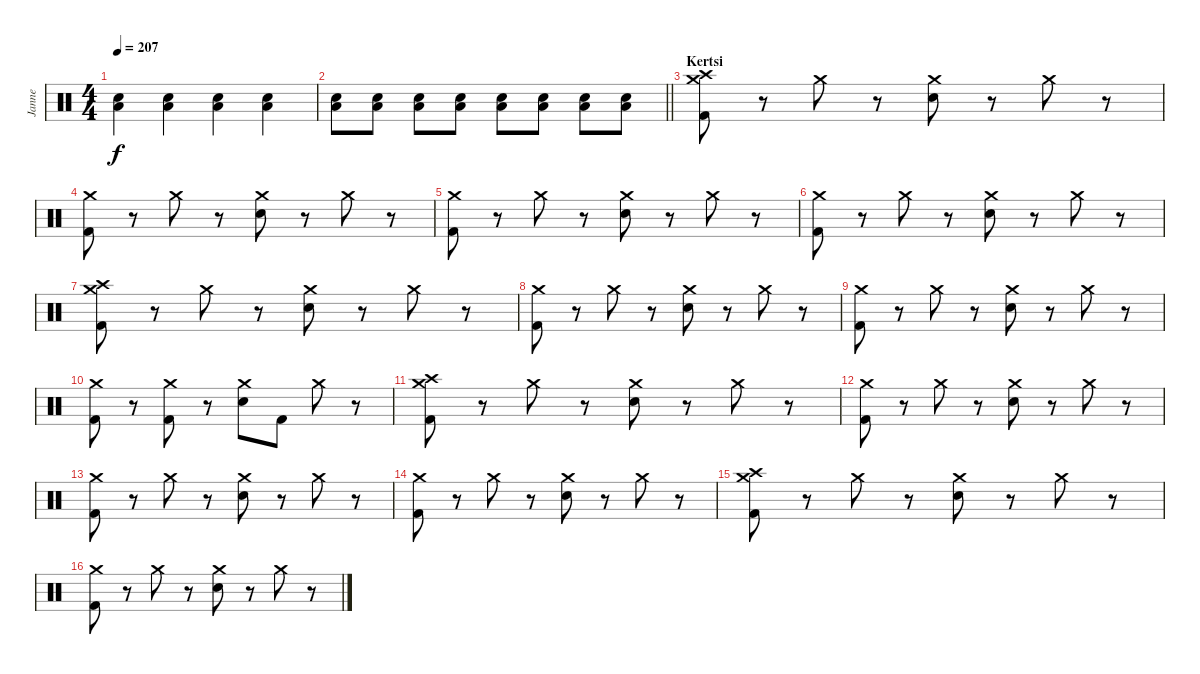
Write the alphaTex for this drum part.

\track ("Janne" "Janne") {instrument percussion}
\staff {score}
\articulation defaults
\ts (4 4)
\tempo 207
\clef neutral
\ks c
("Electric Snare (hit)" "Low Floor Tom (hit)").4{dy f} ("Electric Snare (hit)" "Low Floor Tom (hit)").4 ("Electric Snare (hit)" "Low Floor Tom (hit)").4 ("Electric Snare (hit)" "Low Floor Tom (hit)").4 |
\barLineRight lightlight
("Electric Snare (hit)" "Low Floor Tom (hit)").8 ("Electric Snare (hit)" "Low Floor Tom (hit)").8 ("Electric Snare (hit)" "Low Floor Tom (hit)").8 ("Electric Snare (hit)" "Low Floor Tom (hit)").8 ("Electric Snare (hit)" "Low Floor Tom (hit)").8 ("Electric Snare (hit)" "Low Floor Tom (hit)").8 ("Electric Snare (hit)" "Low Floor Tom (hit)").8 ("Electric Snare (hit)" "Low Floor Tom (hit)").8 |
\section ("" "Kertsi")
("Crash high (hit)" "Crash medium (hit)" "Kick (hit) 2").8 r.8 "Crash medium (hit)".8 r.8 ("Crash medium (hit)" "Electric Snare (hit)").8 r.8 "Crash medium (hit)".8 r.8 |
("Crash medium (hit)" "Kick (hit) 2").8 r.8 "Crash medium (hit)".8 r.8 ("Crash medium (hit)" "Electric Snare (hit)").8 r.8 "Crash medium (hit)".8 r.8 |
("Crash medium (hit)" "Kick (hit) 2").8 r.8 "Crash medium (hit)".8 r.8 ("Crash medium (hit)" "Electric Snare (hit)").8 r.8 "Crash medium (hit)".8 r.8 |
("Crash medium (hit)" "Kick (hit) 2").8 r.8 "Crash medium (hit)".8 r.8 ("Crash medium (hit)" "Electric Snare (hit)").8 r.8 "Crash medium (hit)".8 r.8 |
("Crash high (hit)" "Crash medium (hit)" "Kick (hit) 2").8 r.8 "Crash medium (hit)".8 r.8 ("Crash medium (hit)" "Electric Snare (hit)").8 r.8 "Crash medium (hit)".8 r.8 |
("Crash medium (hit)" "Kick (hit) 2").8 r.8 "Crash medium (hit)".8 r.8 ("Crash medium (hit)" "Electric Snare (hit)").8 r.8 "Crash medium (hit)".8 r.8 |
("Crash medium (hit)" "Kick (hit) 2").8 r.8 "Crash medium (hit)".8 r.8 ("Crash medium (hit)" "Electric Snare (hit)").8 r.8 "Crash medium (hit)".8 r.8 |
("Crash medium (hit)" "Kick (hit) 2").8 r.8 ("Crash medium (hit)" "Kick (hit) 2").8 r.8 ("Crash medium (hit)" "Electric Snare (hit)").8 "Kick (hit) 2".8 "Crash medium (hit)".8 r.8 |
("Crash high (hit)" "Crash medium (hit)" "Kick (hit) 2").8 r.8 "Crash medium (hit)".8 r.8 ("Crash medium (hit)" "Electric Snare (hit)").8 r.8 "Crash medium (hit)".8 r.8 |
("Crash medium (hit)" "Kick (hit) 2").8 r.8 "Crash medium (hit)".8 r.8 ("Crash medium (hit)" "Electric Snare (hit)").8 r.8 "Crash medium (hit)".8 r.8 |
("Crash medium (hit)" "Kick (hit) 2").8 r.8 "Crash medium (hit)".8 r.8 ("Crash medium (hit)" "Electric Snare (hit)").8 r.8 "Crash medium (hit)".8 r.8 |
("Crash medium (hit)" "Kick (hit) 2").8 r.8 "Crash medium (hit)".8 r.8 ("Crash medium (hit)" "Electric Snare (hit)").8 r.8 "Crash medium (hit)".8 r.8 |
("Crash high (hit)" "Crash medium (hit)" "Kick (hit) 2").8 r.8 "Crash medium (hit)".8 r.8 ("Crash medium (hit)" "Electric Snare (hit)").8 r.8 "Crash medium (hit)".8 r.8 |
("Crash medium (hit)" "Kick (hit) 2").8 r.8 "Crash medium (hit)".8 r.8 ("Crash medium (hit)" "Electric Snare (hit)").8 r.8 "Crash medium (hit)".8 r.8
